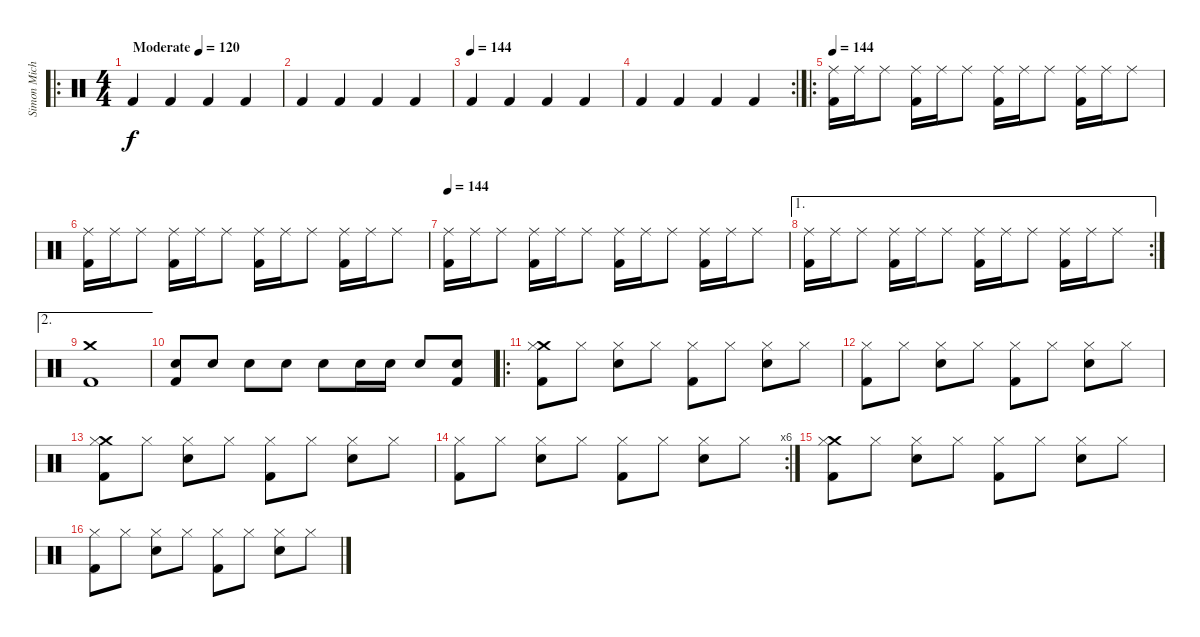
\track ("Simon Michael" "Simon Mich") {instrument percussion}
\staff {score}
\articulation defaults
\ro
\ts (4 4)
\tempo (120 "Moderate")
\tempo 144
\tempo (120 "Moderate")
\clef neutral
\ks c "Kick (hit) 2".4{dy f} "Kick (hit) 2".4 "Kick (hit) 2".4 "Kick (hit) 2".4
|
"Kick (hit) 2".4 "Kick (hit) 2".4 "Kick (hit) 2".4 "Kick (hit) 2".4 |
\tempo (144)
"Kick (hit) 2".4 "Kick (hit) 2".4 "Kick (hit) 2".4 "Kick (hit) 2".4 |
\rc 2 "Kick (hit) 2".4 "Kick (hit) 2".4 "Kick (hit) 2".4 "Kick (hit) 2".4
|
\ro
\tempo 144
("Ride (middle)" "Kick (hit) 2").16 "Ride (middle)".16 "Ride (middle)".8 ("Ride (middle)" "Kick (hit) 2").16 "Ride (middle)".16 "Ride (middle)".8 ("Ride (middle)" "Kick (hit) 2").16 "Ride (middle)".16 "Ride (middle)".8 ("Ride (middle)" "Kick (hit) 2").16 "Ride (middle)".16 "Ride (middle)".8 |
("Ride (middle)" "Kick (hit) 2").16 "Ride (middle)".16 "Ride (middle)".8 ("Ride (middle)" "Kick (hit) 2").16 "Ride (middle)".16 "Ride (middle)".8 ("Ride (middle)" "Kick (hit) 2").16 "Ride (middle)".16 "Ride (middle)".8 ("Ride (middle)" "Kick (hit) 2").16 "Ride (middle)".16 "Ride (middle)".8 |
\tempo 144
("Ride (middle)" "Kick (hit) 2").16 "Ride (middle)".16 "Ride (middle)".8 ("Ride (middle)" "Kick (hit) 2").16 "Ride (middle)".16 "Ride (middle)".8 ("Ride (middle)" "Kick (hit) 2").16 "Ride (middle)".16 "Ride (middle)".8 ("Ride (middle)" "Kick (hit) 2").16 "Ride (middle)".16 "Ride (middle)".8 |
\ae 1
\rc 2
("Ride (middle)" "Kick (hit) 2").16 "Ride (middle)".16 "Ride (middle)".8 ("Ride (middle)" "Kick (hit) 2").16 "Ride (middle)".16 "Ride (middle)".8 ("Ride (middle)" "Kick (hit) 2").16 "Ride (middle)".16 "Ride (middle)".8 ("Ride (middle)" "Kick (hit) 2").16 "Ride (middle)".16 "Ride (middle)".8 |
\ae 2
("Crash medium (hit)" "Kick (hit) 2").1 |
("Kick (hit) 2" "Snare (hit) 2").8{volume 7} "Snare (hit) 2".8 "Snare (hit) 2".8{volume 9} "Snare (hit) 2".8 "Snare (hit) 2".8{volume 11} "Snare (hit) 2".16 "Snare (hit) 2".16{volume 13} "Snare (hit) 2".8 ("Kick (hit) 2" "Snare (hit) 2").8 |
\ro
("Crash medium (hit)" "Hi-Hat (closed)" "Kick (hit) 2").8 "Hi-Hat (closed)".8 ("Hi-Hat (closed)" "Snare (hit) 2").8 "Hi-Hat (closed)".8 ("Hi-Hat (closed)" "Kick (hit) 2").8 "Hi-Hat (closed)".8 ("Hi-Hat (closed)" "Snare (hit) 2").8 "Hi-Hat (closed)".8 |
("Hi-Hat (closed)" "Kick (hit) 2").8 "Hi-Hat (closed)".8 ("Hi-Hat (closed)" "Snare (hit) 2").8 "Hi-Hat (closed)".8 ("Hi-Hat (closed)" "Kick (hit) 2").8 "Hi-Hat (closed)".8 ("Hi-Hat (closed)" "Snare (hit) 2").8 "Hi-Hat (closed)".8 |
("Crash medium (hit)" "Hi-Hat (closed)" "Kick (hit) 2").8 "Hi-Hat (closed)".8 ("Hi-Hat (closed)" "Snare (hit) 2").8 "Hi-Hat (closed)".8 ("Hi-Hat (closed)" "Kick (hit) 2").8 "Hi-Hat (closed)".8 ("Hi-Hat (closed)" "Snare (hit) 2").8 "Hi-Hat (closed)".8 |
\rc 6
("Hi-Hat (closed)" "Kick (hit) 2").8 "Hi-Hat (closed)".8 ("Hi-Hat (closed)" "Snare (hit) 2").8 "Hi-Hat (closed)".8 ("Hi-Hat (closed)" "Kick (hit) 2").8 "Hi-Hat (closed)".8 ("Hi-Hat (closed)" "Snare (hit) 2").8 "Hi-Hat (closed)".8 |
("Crash medium (hit)" "Hi-Hat (closed)" "Kick (hit) 2").8 "Hi-Hat (closed)".8 ("Hi-Hat (closed)" "Snare (hit) 2").8 "Hi-Hat (closed)".8 ("Hi-Hat (closed)" "Kick (hit) 2").8 "Hi-Hat (closed)".8 ("Hi-Hat (closed)" "Snare (hit) 2").8 "Hi-Hat (closed)".8 |
("Hi-Hat (closed)" "Kick (hit) 2").8 "Hi-Hat (closed)".8 ("Hi-Hat (closed)" "Snare (hit) 2").8 "Hi-Hat (closed)".8 ("Hi-Hat (closed)" "Kick (hit) 2").8 "Hi-Hat (closed)".8 ("Hi-Hat (closed)" "Snare (hit) 2").8 "Hi-Hat (closed)".8
